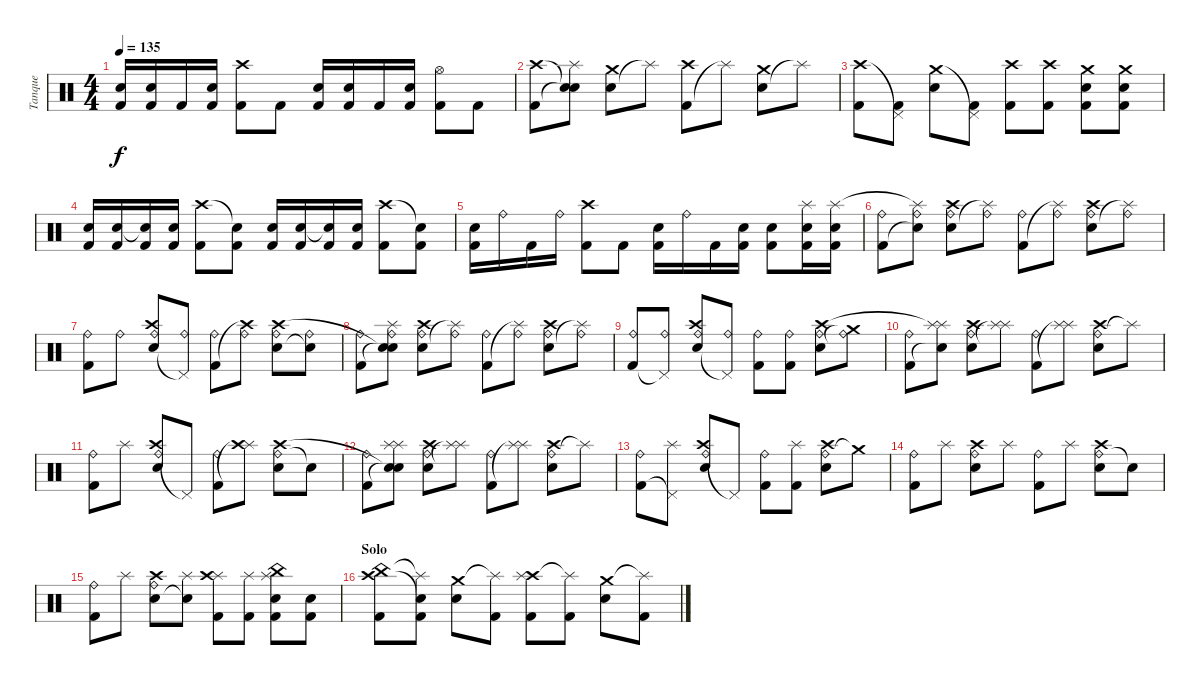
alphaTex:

\track ("Tanque" "Tanque") {instrument percussion}
\staff {score}
\articulation defaults
\ts (4 4)
\tempo 135
\clef neutral
\ks c
("Kick (hit) 2" "Snare (hit) 2").16{dy f} ("Kick (hit) 2" "Snare (hit) 2").16 "Kick (hit) 2".16 ("Kick (hit) 2" "Snare (hit) 2").16 ("Kick (hit) 2" "Crash high (hit)").8 "Kick (hit) 2".8 ("Kick (hit) 2" "Snare (hit) 2").16 ("Kick (hit) 2" "Snare (hit) 2").16 "Kick (hit) 2".16 ("Kick (hit) 2" "Snare (hit) 2").16 ("Kick (hit) 2" "Hi-Hat (open)").8 "Kick (hit) 2".8 |
("Kick (hit) 2" "Crash high (hit)").8 ("Snare (hit)"{t} "Snare (hit)"{t} "Splash (hit)"{t}).8 ("Snare (hit) 2" "Crash medium (hit)").8 "Splash (hit)"{t}.8 ("Kick (hit) 2" "Crash high (hit)").8 "Splash (hit)"{t}.8 ("Snare (hit) 2" "Crash medium (hit)").8 "Splash (hit)"{t}.8 |
("Kick (hit) 2" "Crash high (hit)").8 ("Kick (hit) 2" "Pedal Hi-Hat (hit)"{t}).8 ("Snare (hit) 2" "Crash medium (hit)").8 ("Kick (hit) 2" "Pedal Hi-Hat (hit)"{t}).8 ("Kick (hit) 2" "Crash high (hit)").8 ("Kick (hit) 2" "Crash high (hit)").8 ("Kick (hit) 2" "Snare (hit) 2" "Crash medium (hit)").8 ("Kick (hit) 2" "Snare (hit) 2" "Crash medium (hit)").8 |
("Kick (hit) 2" "Snare (hit) 2").16 ("Kick (hit) 2" "Snare (hit) 2").16 ("Kick (hit) 2" "Snare (hit) 2"{t}).16 ("Kick (hit) 2" "Snare (hit) 2").16 ("Kick (hit) 2" "Crash high (hit)").8 ("Kick (hit) 2" "Snare (hit)"{t}).8 ("Kick (hit) 2" "Snare (hit) 2").16 ("Kick (hit) 2" "Snare (hit) 2").16 ("Kick (hit) 2" "Snare (hit) 2"{t}).16 ("Kick (hit) 2" "Snare (hit) 2").16 ("Kick (hit) 2" "Crash high (hit)").8 ("Kick (hit) 2" "Snare (hit)"{t}).8 |
("Kick (hit) 2" "Snare (hit) 2").16 "Ride (bell)".16 "Kick (hit) 2".16 "Ride (bell)".16 ("Kick (hit) 2" "Crash high (hit)").8 "Kick (hit) 2".8 ("Kick (hit) 2" "Snare (hit) 2").16 "Ride (bell)".16 "Kick (hit) 2".16 ("Kick (hit) 2" "Snare (hit) 2").16 ("Kick (hit) 2" "Snare (hit) 2").8 ("Kick (hit) 2" "Snare (hit) 2" "Splash (hit)").16 ("Kick (hit) 2" "Snare (hit) 2" "Splash (hit)").16 |
("Ride (bell)" "Kick (hit) 2").8 ("Ride (bell)" "Snare (hit)"{t} "Splash (hit)"{t}).8 ("Ride (bell)" "Snare (hit) 2" "Crash high (hit)").8 ("Ride (bell)" "Splash (hit)"{t}).8 ("Ride (bell)" "Kick (hit) 2").8 ("Ride (bell)" "Splash (hit)"{t}).8 ("Ride (bell)" "Snare (hit) 2" "Crash high (hit)").8 ("Ride (bell)" "Splash (hit)"{t}).8 |
("Ride (bell)" "Kick (hit) 2").8 "Ride (bell)".8 ("Ride (bell)" "Snare (hit) 2" "Crash high (hit)").8 ("Ride (bell)" "Pedal Hi-Hat (hit)"{t}).8 ("Ride (bell)" "Kick (hit) 2").8 ("Ride (bell)" "Crash high (hit)"{t}).8 ("Ride (bell)" "Snare (hit) 2" "Crash high (hit)").8 ("Ride (bell)" "Snare (hit)"{t}).8 |
("Ride (bell)" "Kick (hit) 2").8 ("Ride (bell)" "Snare (hit)"{t} "Snare (hit)"{t} "Splash (hit)").8 ("Ride (bell)" "Snare (hit) 2" "Crash high (hit)").8 ("Ride (bell)" "Splash (hit)"{t}).8 ("Ride (bell)" "Kick (hit) 2").8 ("Ride (bell)" "Splash (hit)"{t}).8 ("Ride (bell)" "Snare (hit) 2" "Crash high (hit)").8 ("Ride (bell)" "Splash (hit)"{t}).8 |
("Ride (bell)" "Kick (hit) 2").8 ("Ride (bell)" "Pedal Hi-Hat (hit)"{t}).8 ("Ride (bell)" "Snare (hit) 2" "Crash high (hit)").8 ("Ride (bell)" "Pedal Hi-Hat (hit)"{t}).8 ("Ride (bell)" "Kick (hit) 2").8 ("Ride (bell)" "Kick (hit) 2").8 ("Ride (bell)" "Snare (hit) 2" "Crash high (hit)").8 ("Ride (bell)" "Crash medium (hit)"{t}).8 |
("Ride (bell)" "Kick (hit) 2").8 ("Splash (hit)" "Snare (hit)"{t} "Splash (hit)"{t}).8 ("Ride (bell)" "Snare (hit) 2" "Crash high (hit)").8 ("Splash (hit)" "Splash (hit)"{t}).8 ("Ride (bell)" "Kick (hit) 2").8 ("Splash (hit)" "Splash (hit)"{t}).8 ("Ride (bell)" "Snare (hit) 2" "Crash high (hit)").8 "Splash (hit)"{t}.8 |
("Ride (bell)" "Kick (hit) 2").8 "Splash (hit)".8 ("Ride (bell)" "Snare (hit) 2" "Crash high (hit)").8 "Pedal Hi-Hat (hit)"{t}.8 ("Ride (bell)" "Kick (hit) 2").8 ("Splash (hit)" "Crash high (hit)"{t}).8 ("Ride (bell)" "Snare (hit) 2" "Crash high (hit)").8 "Snare (hit)"{t}.8 |
("Ride (bell)" "Kick (hit) 2").8 ("Splash (hit)" "Snare (hit)"{t} "Snare (hit)"{t} "Splash (hit)").8 ("Ride (bell)" "Snare (hit) 2" "Crash high (hit)").8 ("Splash (hit)" "Splash (hit)"{t}).8 ("Ride (bell)" "Kick (hit) 2").8 ("Splash (hit)" "Splash (hit)"{t}).8 ("Ride (bell)" "Snare (hit) 2" "Crash high (hit)").8 "Splash (hit)"{t}.8 |
("Ride (bell)" "Kick (hit) 2").8 ("Splash (hit)" "Pedal Hi-Hat (hit)"{t}).8 ("Ride (bell)" "Snare (hit) 2" "Crash high (hit)").8 "Pedal Hi-Hat (hit)"{t}.8 ("Ride (bell)" "Kick (hit) 2").8 ("Splash (hit)" "Kick (hit) 2").8 ("Ride (bell)" "Snare (hit) 2" "Crash high (hit)").8 "Crash medium (hit)"{t}.8 |
("Ride (bell)" "Kick (hit) 2").8 "Splash (hit)".8 ("Ride (bell)" "Snare (hit) 2" "Crash high (hit)").8 "Splash (hit)".8 ("Ride (bell)" "Kick (hit) 2").8 "Splash (hit)".8 ("Ride (bell)" "Snare (hit) 2" "Crash high (hit)").8 "Snare (hit)"{t}.8 |
("Ride (bell)" "Kick (hit) 2").8 "Splash (hit)".8 ("Ride (bell)" "Snare (hit) 2" "Crash high (hit)").8 ("Splash (hit)" "Snare (hit)"{t}).8 ("Splash (hit)" "Kick (hit) 2" "Crash high (hit)").8 ("Splash (hit)" "Kick (hit) 2").8 ("Splash (hit)" "Kick (hit) 2" "Snare (hit) 2" "China (hit)").8 ("Kick (hit) 2" "Snare (hit) 2").8 |
\section ("" "Solo")
("Kick (hit) 2" "Crash high (hit)" "China (hit)").8 ("Kick (hit) 2" "Snare (hit)"{t} "Splash (hit)"{t}).8 ("Snare (hit) 2" "Crash medium (hit)").8 ("Kick (hit) 2" "Splash (hit)"{t}).8 ("Kick (hit) 2" "Crash high (hit)" "Splash (hit)").8 ("Kick (hit) 2" "Splash (hit)"{t}).8 ("Snare (hit) 2" "Crash medium (hit)").8 ("Kick (hit) 2" "Splash (hit)"{t}).8
